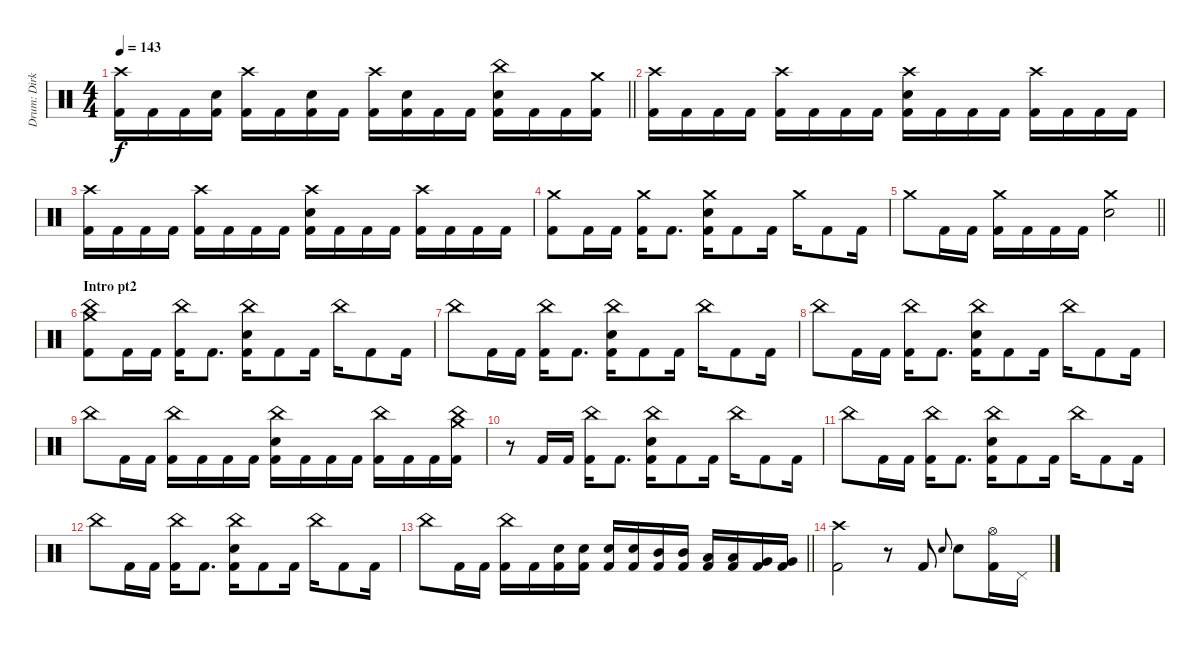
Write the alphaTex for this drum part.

\track ("Drum: Dirk" "Drum: Dirk") {instrument percussion}
\staff {score}
\articulation defaults
\ts (4 4)
\tempo 143
\clef neutral
\barLineRight lightlight
\ks c
("Crash high (hit)" "Kick (hit) 2").16{dy f} "Kick (hit) 2".16 "Kick (hit) 2".16 ("Electric Snare (hit)" "Kick (hit) 2").16 ("Crash high (hit)" "Kick (hit) 2").16 "Kick (hit) 2".16 ("Electric Snare (hit)" "Kick (hit) 2").16 "Kick (hit) 2".16 ("Crash high (hit)" "Kick (hit) 2").16 ("Electric Snare (hit)" "Kick (hit) 2").16 "Kick (hit) 2".16 "Kick (hit) 2".16 ("China (hit)" "Electric Snare (hit)" "Kick (hit) 2").16 "Kick (hit) 2".16 "Kick (hit) 2".16 ("Crash medium (hit)" "Kick (hit) 2").16 |
("Crash high (hit)" "Kick (hit) 2").16 "Kick (hit) 2".16 "Kick (hit) 2".16 "Kick (hit) 2".16 ("Crash high (hit)" "Kick (hit) 2").16 "Kick (hit) 2".16 "Kick (hit) 2".16 "Kick (hit) 2".16 ("Crash high (hit)" "Electric Snare (hit)" "Kick (hit) 2").16 "Kick (hit) 2".16 "Kick (hit) 2".16 "Kick (hit) 2".16 ("Crash high (hit)" "Kick (hit) 2").16 "Kick (hit) 2".16 "Kick (hit) 2".16 "Kick (hit) 2".16 |
("Crash high (hit)" "Kick (hit) 2").16 "Kick (hit) 2".16 "Kick (hit) 2".16 "Kick (hit) 2".16 ("Crash high (hit)" "Kick (hit) 2").16 "Kick (hit) 2".16 "Kick (hit) 2".16 "Kick (hit) 2".16 ("Crash high (hit)" "Electric Snare (hit)" "Kick (hit) 2").16 "Kick (hit) 2".16 "Kick (hit) 2".16 "Kick (hit) 2".16 ("Crash high (hit)" "Kick (hit) 2").16 "Kick (hit) 2".16 "Kick (hit) 2".16 "Kick (hit) 2".16 |
("Crash medium (hit)" "Kick (hit) 2").8 "Kick (hit) 2".16 "Kick (hit) 2".16 ("Crash medium (hit)" "Kick (hit) 2").16 "Kick (hit) 2".8{d} ("Crash medium (hit)" "Electric Snare (hit)" "Kick (hit) 2").16 "Kick (hit) 2".8 "Kick (hit) 2".16 "Crash medium (hit)".16 "Kick (hit) 2".8 "Kick (hit) 2".16 |
\barLineRight lightlight "Crash medium (hit)".8 "Kick (hit) 2".16 "Kick (hit) 2".16
("Crash medium (hit)" "Kick (hit) 2").16 "Kick (hit) 2".16 "Kick (hit) 2".16 "Kick (hit) 2".16 ("Crash medium (hit)" "Electric Snare (hit)").2 |
\section ("" "Intro pt2")
("China (hit)" "Crash medium (hit)" "Kick (hit) 2").8 "Kick (hit) 2".16 "Kick (hit) 2".16 ("China (hit)" "Kick (hit) 2").16 "Kick (hit) 2".8{d} ("China (hit)" "Electric Snare (hit)" "Kick (hit) 2").16 "Kick (hit) 2".8 "Kick (hit) 2".16 "China (hit)".16 "Kick (hit) 2".8 "Kick (hit) 2".16 |
"China (hit)".8 "Kick (hit) 2".16 "Kick (hit) 2".16 ("China (hit)" "Kick (hit) 2").16 "Kick (hit) 2".8{d} ("China (hit)" "Electric Snare (hit)" "Kick (hit) 2").16 "Kick (hit) 2".8 "Kick (hit) 2".16 "China (hit)".16 "Kick (hit) 2".8 "Kick (hit) 2".16 |
"China (hit)".8 "Kick (hit) 2".16 "Kick (hit) 2".16 ("China (hit)" "Kick (hit) 2").16 "Kick (hit) 2".8{d} ("China (hit)" "Electric Snare (hit)" "Kick (hit) 2").16 "Kick (hit) 2".8 "Kick (hit) 2".16 "China (hit)".16 "Kick (hit) 2".8 "Kick (hit) 2".16 |
"China (hit)".8 "Kick (hit) 2".16 "Kick (hit) 2".16 ("China (hit)" "Kick (hit) 2").16 "Kick (hit) 2".16 "Kick (hit) 2".16 "Kick (hit) 2".16 ("China (hit)" "Electric Snare (hit)" "Kick (hit) 2").16 "Kick (hit) 2".16 "Kick (hit) 2".16 "Kick (hit) 2".16 ("China (hit)" "Kick (hit) 2").16 "Kick (hit) 2".16 "Kick (hit) 2".16 ("China (hit)" "Crash medium (hit)" "Kick (hit) 2").16 |
r.8 "Kick (hit) 2".16 "Kick (hit) 2".16 ("China (hit)" "Kick (hit) 2").16 "Kick (hit) 2".8{d} ("China (hit)" "Electric Snare (hit)" "Kick (hit) 2").16 "Kick (hit) 2".8 "Kick (hit) 2".16 "China (hit)".16 "Kick (hit) 2".8 "Kick (hit) 2".16 |
"China (hit)".8 "Kick (hit) 2".16 "Kick (hit) 2".16 ("China (hit)" "Kick (hit) 2").16 "Kick (hit) 2".8{d} ("China (hit)" "Electric Snare (hit)" "Kick (hit) 2").16 "Kick (hit) 2".8 "Kick (hit) 2".16 "China (hit)".16 "Kick (hit) 2".8 "Kick (hit) 2".16 |
"China (hit)".8 "Kick (hit) 2".16 "Kick (hit) 2".16 ("China (hit)" "Kick (hit) 2").16 "Kick (hit) 2".8{d} ("China (hit)" "Electric Snare (hit)" "Kick (hit) 2").16 "Kick (hit) 2".8 "Kick (hit) 2".16 "China (hit)".16 "Kick (hit) 2".8 "Kick (hit) 2".16 |
\barLineRight lightlight "China (hit)".8 "Kick (hit) 2".16 "Kick (hit) 2".16
("China (hit)" "Kick (hit) 2").16 "Kick (hit) 2".16 ("Electric Snare (hit)" "Kick (hit) 2").16 ("Electric Snare (hit)" "Kick (hit) 2").16 ("Electric Snare (hit)" "Kick (hit) 2").16 ("Electric Snare (hit)" "Kick (hit) 2").16 ("Mid Tom (hit)" "Kick (hit) 2").16 ("Mid Tom (hit)" "Kick (hit) 2").16 ("Low Tom (hit)" "Kick (hit) 2").16 ("Low Tom (hit)" "Kick (hit) 2").16 ("Very Low Tom (hit)" "Kick (hit) 2").16 ("Very Low Tom (hit)" "Kick (hit) 2").16 |
("Crash high (hit)" "Kick (hit) 2").2 r.8 "Kick (hit) 2".8 "Electric Snare (hit)".8{gr onbeat} "Electric Snare (hit)".8 ("Hi-Hat (open)" "Kick (hit) 2").16 "Pedal Hi-Hat (hit)".16
